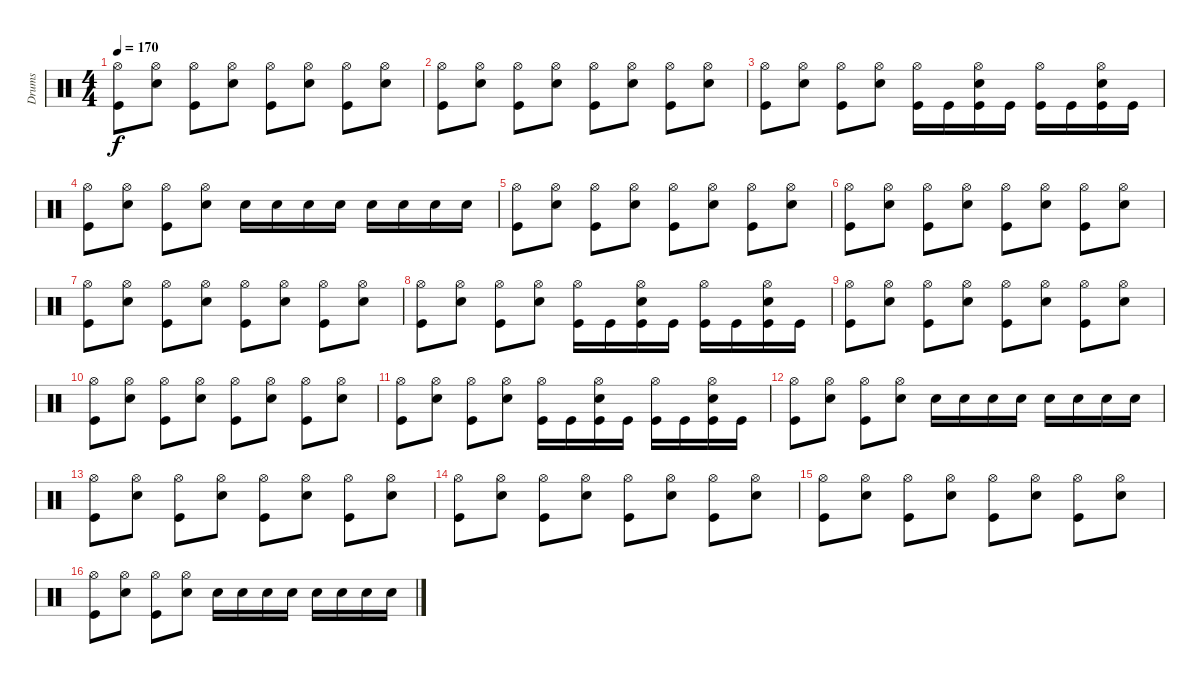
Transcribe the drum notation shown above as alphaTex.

\track ("Drums" "Drums") {instrument percussion}
\staff {score}
\articulation defaults
\ts (4 4)
\tempo 170
\clef neutral
\ks c
("Hi-Hat (open)" "Kick (hit)").8{dy f} ("Hi-Hat (open)" "Snare (hit) 2").8 ("Hi-Hat (open)" "Kick (hit)").8 ("Hi-Hat (open)" "Snare (hit) 2").8 ("Hi-Hat (open)" "Kick (hit)").8 ("Hi-Hat (open)" "Snare (hit) 2").8 ("Hi-Hat (open)" "Kick (hit)").8 ("Hi-Hat (open)" "Snare (hit) 2").8 |
("Hi-Hat (open)" "Kick (hit)").8 ("Hi-Hat (open)" "Snare (hit) 2").8 ("Hi-Hat (open)" "Kick (hit)").8 ("Hi-Hat (open)" "Snare (hit) 2").8 ("Hi-Hat (open)" "Kick (hit)").8 ("Hi-Hat (open)" "Snare (hit) 2").8 ("Hi-Hat (open)" "Kick (hit)").8 ("Hi-Hat (open)" "Snare (hit) 2").8 |
("Hi-Hat (open)" "Kick (hit)").8 ("Hi-Hat (open)" "Snare (hit) 2").8 ("Hi-Hat (open)" "Kick (hit)").8 ("Hi-Hat (open)" "Snare (hit) 2").8 ("Hi-Hat (open)" "Kick (hit)").16 "Kick (hit)".16 ("Hi-Hat (open)" "Snare (hit) 2" "Kick (hit)").16 "Kick (hit)".16 ("Hi-Hat (open)" "Kick (hit)").16 "Kick (hit)".16 ("Hi-Hat (open)" "Snare (hit) 2" "Kick (hit)").16 "Kick (hit)".16 |
("Hi-Hat (open)" "Kick (hit)").8 ("Hi-Hat (open)" "Snare (hit) 2").8 ("Hi-Hat (open)" "Kick (hit)").8 ("Hi-Hat (open)" "Snare (hit) 2").8 "Snare (hit) 2".16 "Snare (hit) 2".16 "Snare (hit) 2".16 "Snare (hit) 2".16 "Snare (hit) 2".16 "Snare (hit) 2".16 "Snare (hit) 2".16 "Snare (hit) 2".16 |
("Hi-Hat (open)" "Kick (hit)").8 ("Hi-Hat (open)" "Snare (hit) 2").8 ("Hi-Hat (open)" "Kick (hit)").8 ("Hi-Hat (open)" "Snare (hit) 2").8 ("Hi-Hat (open)" "Kick (hit)").8 ("Hi-Hat (open)" "Snare (hit) 2").8 ("Hi-Hat (open)" "Kick (hit)").8 ("Hi-Hat (open)" "Snare (hit) 2").8 |
("Hi-Hat (open)" "Kick (hit)").8 ("Hi-Hat (open)" "Snare (hit) 2").8 ("Hi-Hat (open)" "Kick (hit)").8 ("Hi-Hat (open)" "Snare (hit) 2").8 ("Hi-Hat (open)" "Kick (hit)").8 ("Hi-Hat (open)" "Snare (hit) 2").8 ("Hi-Hat (open)" "Kick (hit)").8 ("Hi-Hat (open)" "Snare (hit) 2").8 |
("Hi-Hat (open)" "Kick (hit)").8 ("Hi-Hat (open)" "Snare (hit) 2").8 ("Hi-Hat (open)" "Kick (hit)").8 ("Hi-Hat (open)" "Snare (hit) 2").8 ("Hi-Hat (open)" "Kick (hit)").8 ("Hi-Hat (open)" "Snare (hit) 2").8 ("Hi-Hat (open)" "Kick (hit)").8 ("Hi-Hat (open)" "Snare (hit) 2").8 |
("Hi-Hat (open)" "Kick (hit)").8 ("Hi-Hat (open)" "Snare (hit) 2").8 ("Hi-Hat (open)" "Kick (hit)").8 ("Hi-Hat (open)" "Snare (hit) 2").8 ("Hi-Hat (open)" "Kick (hit)").16 "Kick (hit)".16 ("Hi-Hat (open)" "Snare (hit) 2" "Kick (hit)").16 "Kick (hit)".16 ("Hi-Hat (open)" "Kick (hit)").16 "Kick (hit)".16 ("Hi-Hat (open)" "Snare (hit) 2" "Kick (hit)").16 "Kick (hit)".16 |
("Hi-Hat (open)" "Kick (hit)").8 ("Hi-Hat (open)" "Snare (hit) 2").8 ("Hi-Hat (open)" "Kick (hit)").8 ("Hi-Hat (open)" "Snare (hit) 2").8 ("Hi-Hat (open)" "Kick (hit)").8 ("Hi-Hat (open)" "Snare (hit) 2").8 ("Hi-Hat (open)" "Kick (hit)").8 ("Hi-Hat (open)" "Snare (hit) 2").8 |
("Hi-Hat (open)" "Kick (hit)").8 ("Hi-Hat (open)" "Snare (hit) 2").8 ("Hi-Hat (open)" "Kick (hit)").8 ("Hi-Hat (open)" "Snare (hit) 2").8 ("Hi-Hat (open)" "Kick (hit)").8 ("Hi-Hat (open)" "Snare (hit) 2").8 ("Hi-Hat (open)" "Kick (hit)").8 ("Hi-Hat (open)" "Snare (hit) 2").8 |
("Hi-Hat (open)" "Kick (hit)").8 ("Hi-Hat (open)" "Snare (hit) 2").8 ("Hi-Hat (open)" "Kick (hit)").8 ("Hi-Hat (open)" "Snare (hit) 2").8 ("Hi-Hat (open)" "Kick (hit)").16 "Kick (hit)".16 ("Hi-Hat (open)" "Snare (hit) 2" "Kick (hit)").16 "Kick (hit)".16 ("Hi-Hat (open)" "Kick (hit)").16 "Kick (hit)".16 ("Hi-Hat (open)" "Snare (hit) 2" "Kick (hit)").16 "Kick (hit)".16 |
("Hi-Hat (open)" "Kick (hit)").8 ("Hi-Hat (open)" "Snare (hit) 2").8 ("Hi-Hat (open)" "Kick (hit)").8 ("Hi-Hat (open)" "Snare (hit) 2").8 "Snare (hit) 2".16 "Snare (hit) 2".16 "Snare (hit) 2".16 "Snare (hit) 2".16 "Snare (hit) 2".16 "Snare (hit) 2".16 "Snare (hit) 2".16 "Snare (hit) 2".16 |
("Hi-Hat (open)" "Kick (hit)").8 ("Hi-Hat (open)" "Snare (hit) 2").8 ("Hi-Hat (open)" "Kick (hit)").8 ("Hi-Hat (open)" "Snare (hit) 2").8 ("Hi-Hat (open)" "Kick (hit)").8 ("Hi-Hat (open)" "Snare (hit) 2").8 ("Hi-Hat (open)" "Kick (hit)").8 ("Hi-Hat (open)" "Snare (hit) 2").8 |
("Hi-Hat (open)" "Kick (hit)").8 ("Hi-Hat (open)" "Snare (hit) 2").8 ("Hi-Hat (open)" "Kick (hit)").8 ("Hi-Hat (open)" "Snare (hit) 2").8 ("Hi-Hat (open)" "Kick (hit)").8 ("Hi-Hat (open)" "Snare (hit) 2").8 ("Hi-Hat (open)" "Kick (hit)").8 ("Hi-Hat (open)" "Snare (hit) 2").8 |
("Hi-Hat (open)" "Kick (hit)").8 ("Hi-Hat (open)" "Snare (hit) 2").8 ("Hi-Hat (open)" "Kick (hit)").8 ("Hi-Hat (open)" "Snare (hit) 2").8 ("Hi-Hat (open)" "Kick (hit)").8 ("Hi-Hat (open)" "Snare (hit) 2").8 ("Hi-Hat (open)" "Kick (hit)").8 ("Hi-Hat (open)" "Snare (hit) 2").8 |
("Hi-Hat (open)" "Kick (hit)").8 ("Hi-Hat (open)" "Snare (hit) 2").8 ("Hi-Hat (open)" "Kick (hit)").8 ("Hi-Hat (open)" "Snare (hit) 2").8 "Snare (hit) 2".16 "Snare (hit) 2".16 "Snare (hit) 2".16 "Snare (hit) 2".16 "Snare (hit) 2".16 "Snare (hit) 2".16 "Snare (hit) 2".16 "Snare (hit) 2".16
